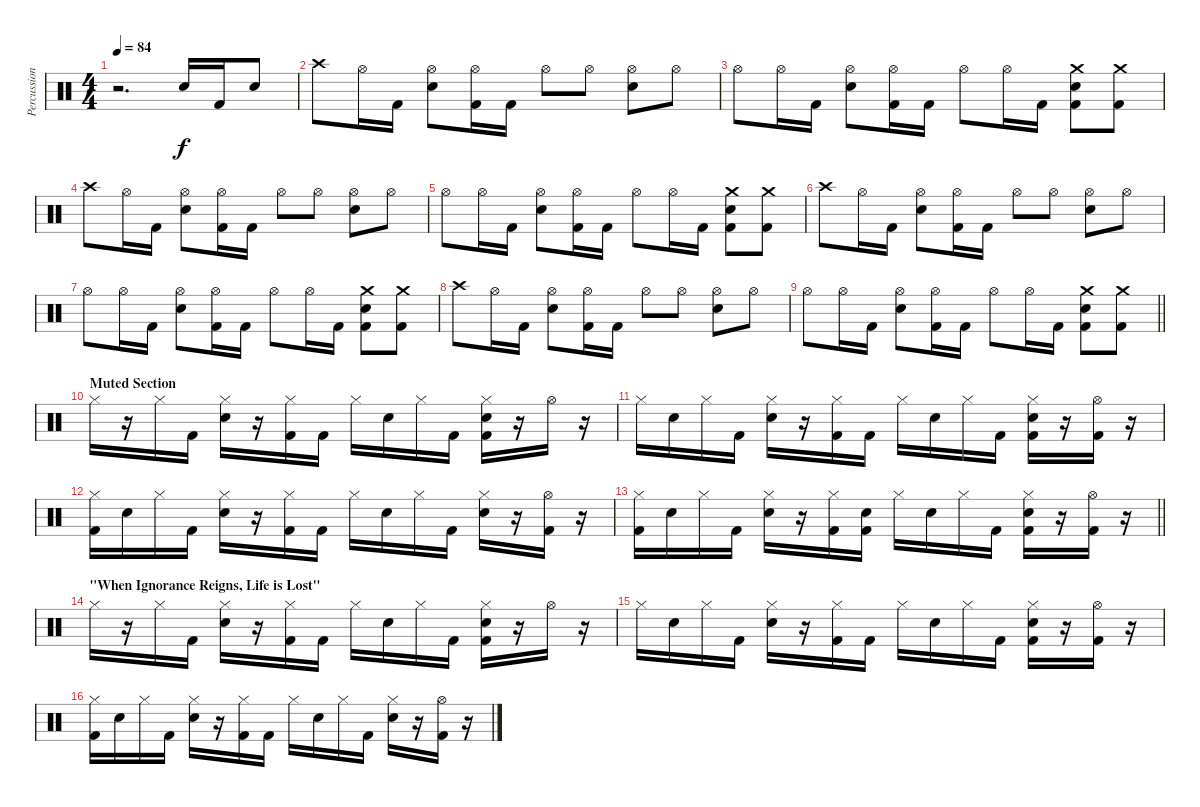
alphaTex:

\track ("Percussion" "Percussion") {instrument percussion}
\staff {score}
\articulation defaults
\ts (4 4)
\tempo 84
\clef neutral
\ks c
r.2{d dy f} "Electric Snare (hit)".16 "Kick (hit) 2".16 "Electric Snare (hit)".8 |
"Crash high (hit)".8 "Hi-Hat (open)".16 "Kick (hit) 2".16 ("Hi-Hat (open)" "Electric Snare (hit)").8 ("Hi-Hat (open)" "Kick (hit) 2").16 "Kick (hit) 2".16 "Hi-Hat (open)".8 "Hi-Hat (open)".8 ("Hi-Hat (open)" "Electric Snare (hit)").8 "Hi-Hat (open)".8 |
"Hi-Hat (open)".8 "Hi-Hat (open)".16 "Kick (hit) 2".16 ("Hi-Hat (open)" "Electric Snare (hit)").8 ("Hi-Hat (open)" "Kick (hit) 2").16 "Kick (hit) 2".16 "Hi-Hat (open)".8 "Hi-Hat (open)".16 "Kick (hit) 2".16 ("Crash medium (hit)" "Electric Snare (hit)" "Kick (hit) 2").8 ("Crash medium (hit)" "Kick (hit) 2").8 |
"Crash high (hit)".8 "Hi-Hat (open)".16 "Kick (hit) 2".16 ("Hi-Hat (open)" "Electric Snare (hit)").8 ("Hi-Hat (open)" "Kick (hit) 2").16 "Kick (hit) 2".16 "Hi-Hat (open)".8 "Hi-Hat (open)".8 ("Hi-Hat (open)" "Electric Snare (hit)").8 "Hi-Hat (open)".8 |
"Hi-Hat (open)".8 "Hi-Hat (open)".16 "Kick (hit) 2".16 ("Hi-Hat (open)" "Electric Snare (hit)").8 ("Hi-Hat (open)" "Kick (hit) 2").16 "Kick (hit) 2".16 "Hi-Hat (open)".8 "Hi-Hat (open)".16 "Kick (hit) 2".16 ("Crash medium (hit)" "Electric Snare (hit)" "Kick (hit) 2").8 ("Crash medium (hit)" "Kick (hit) 2").8 |
"Crash high (hit)".8 "Hi-Hat (open)".16 "Kick (hit) 2".16 ("Hi-Hat (open)" "Electric Snare (hit)").8 ("Hi-Hat (open)" "Kick (hit) 2").16 "Kick (hit) 2".16 "Hi-Hat (open)".8 "Hi-Hat (open)".8 ("Hi-Hat (open)" "Electric Snare (hit)").8 "Hi-Hat (open)".8 |
"Hi-Hat (open)".8 "Hi-Hat (open)".16 "Kick (hit) 2".16 ("Hi-Hat (open)" "Electric Snare (hit)").8 ("Hi-Hat (open)" "Kick (hit) 2").16 "Kick (hit) 2".16 "Hi-Hat (open)".8 "Hi-Hat (open)".16 "Kick (hit) 2".16 ("Crash medium (hit)" "Electric Snare (hit)" "Kick (hit) 2").8 ("Crash medium (hit)" "Kick (hit) 2").8 |
"Crash high (hit)".8 "Hi-Hat (open)".16 "Kick (hit) 2".16 ("Hi-Hat (open)" "Electric Snare (hit)").8 ("Hi-Hat (open)" "Kick (hit) 2").16 "Kick (hit) 2".16 "Hi-Hat (open)".8 "Hi-Hat (open)".8 ("Hi-Hat (open)" "Electric Snare (hit)").8 "Hi-Hat (open)".8 |
\barLineRight lightlight "Hi-Hat (open)".8 "Hi-Hat (open)".16 "Kick (hit) 2".16
("Hi-Hat (open)" "Electric Snare (hit)").8 ("Hi-Hat (open)" "Kick (hit) 2").16 "Kick (hit) 2".16 "Hi-Hat (open)".8 "Hi-Hat (open)".16 "Kick (hit) 2".16 ("Crash medium (hit)" "Electric Snare (hit)" "Kick (hit) 2").8 ("Crash medium (hit)" "Kick (hit) 2").8 |
\section ("" "Muted Section")
"Hi-Hat (closed)".16 r.16 "Hi-Hat (closed)".16 "Kick (hit) 2".16 ("Hi-Hat (closed)" "Electric Snare (hit)").16 r.16 ("Hi-Hat (closed)" "Kick (hit) 2").16 "Kick (hit) 2".16 "Hi-Hat (closed)".16 "Electric Snare (hit)".16 "Hi-Hat (closed)".16 "Kick (hit) 2".16 ("Hi-Hat (closed)" "Electric Snare (hit)" "Kick (hit) 2").16 r.16 "Hi-Hat (open)".16 r.16 |
"Hi-Hat (closed)".16 "Electric Snare (hit)".16 "Hi-Hat (closed)".16 "Kick (hit) 2".16 ("Hi-Hat (closed)" "Electric Snare (hit)").16 r.16 ("Hi-Hat (closed)" "Kick (hit) 2").16 "Kick (hit) 2".16 "Hi-Hat (closed)".16 "Electric Snare (hit)".16 "Hi-Hat (closed)".16 "Kick (hit) 2".16 ("Hi-Hat (closed)" "Electric Snare (hit)" "Kick (hit) 2").16 r.16 ("Hi-Hat (open)" "Kick (hit) 2").16 r.16 |
("Hi-Hat (closed)" "Kick (hit) 2").16 "Electric Snare (hit)".16 "Hi-Hat (closed)".16 "Kick (hit) 2".16 ("Hi-Hat (closed)" "Electric Snare (hit)").16 r.16 ("Hi-Hat (closed)" "Kick (hit) 2").16 "Kick (hit) 2".16 "Hi-Hat (closed)".16 "Electric Snare (hit)".16 "Hi-Hat (closed)".16 "Kick (hit) 2".16 ("Hi-Hat (closed)" "Electric Snare (hit)").16 r.16 ("Hi-Hat (open)" "Kick (hit) 2").16 r.16 |
\barLineRight lightlight
("Hi-Hat (closed)" "Kick (hit) 2").16 "Electric Snare (hit)".16 "Hi-Hat (closed)".16 "Kick (hit) 2".16 ("Hi-Hat (closed)" "Electric Snare (hit)").16 r.16 ("Hi-Hat (closed)" "Kick (hit) 2").16 ("Electric Snare (hit)" "Kick (hit) 2").16 "Hi-Hat (closed)".16 "Electric Snare (hit)".16 "Hi-Hat (closed)".16 "Kick (hit) 2".16 ("Hi-Hat (closed)" "Electric Snare (hit)" "Kick (hit) 2").16 r.16 ("Hi-Hat (open)" "Kick (hit) 2").16 r.16 |
\section ("" "\"When Ignorance Reigns, Life is Lost\"")
"Hi-Hat (closed)".16 r.16 "Hi-Hat (closed)".16 "Kick (hit) 2".16 ("Hi-Hat (closed)" "Electric Snare (hit)").16 r.16 ("Hi-Hat (closed)" "Kick (hit) 2").16 "Kick (hit) 2".16 "Hi-Hat (closed)".16 "Electric Snare (hit)".16 "Hi-Hat (closed)".16 "Kick (hit) 2".16 ("Hi-Hat (closed)" "Electric Snare (hit)" "Kick (hit) 2").16 r.16 "Hi-Hat (open)".16 r.16 |
"Hi-Hat (closed)".16 "Electric Snare (hit)".16 "Hi-Hat (closed)".16 "Kick (hit) 2".16 ("Hi-Hat (closed)" "Electric Snare (hit)").16 r.16 ("Hi-Hat (closed)" "Kick (hit) 2").16 "Kick (hit) 2".16 "Hi-Hat (closed)".16 "Electric Snare (hit)".16 "Hi-Hat (closed)".16 "Kick (hit) 2".16 ("Hi-Hat (closed)" "Electric Snare (hit)" "Kick (hit) 2").16 r.16 ("Hi-Hat (open)" "Kick (hit) 2").16 r.16 |
("Hi-Hat (closed)" "Kick (hit) 2").16 "Electric Snare (hit)".16 "Hi-Hat (closed)".16 "Kick (hit) 2".16 ("Hi-Hat (closed)" "Electric Snare (hit)").16 r.16 ("Hi-Hat (closed)" "Kick (hit) 2").16 "Kick (hit) 2".16 "Hi-Hat (closed)".16 "Electric Snare (hit)".16 "Hi-Hat (closed)".16 "Kick (hit) 2".16 ("Hi-Hat (closed)" "Electric Snare (hit)").16 r.16 ("Hi-Hat (open)" "Kick (hit) 2").16 r.16
